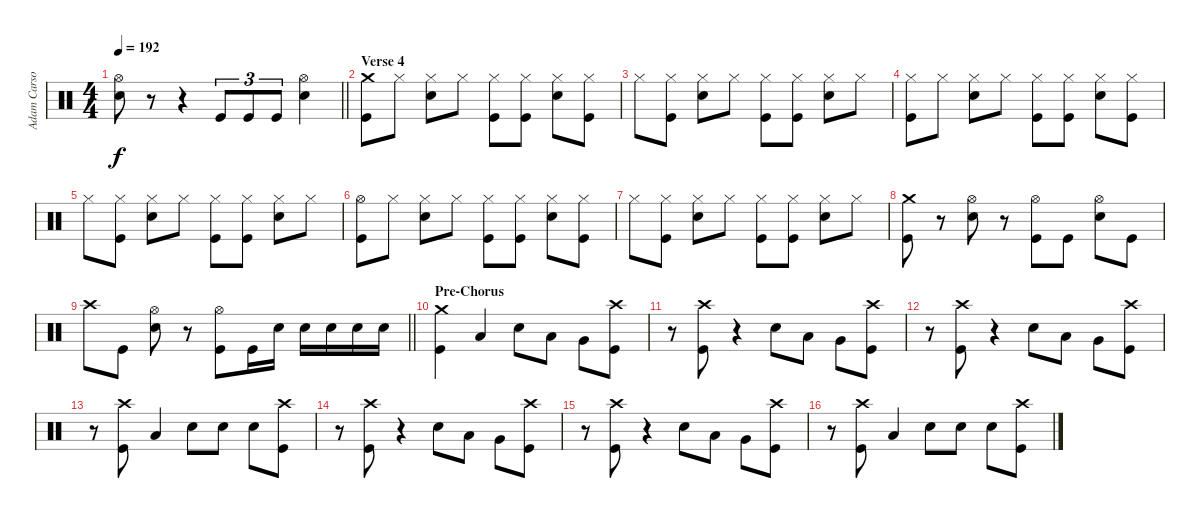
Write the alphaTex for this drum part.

\track ("Adam Carson" "Adam Carso") {instrument percussion}
\staff {score}
\articulation defaults
\ts (4 4)
\tempo 192
\clef neutral
\barLineRight lightlight
\ks c
("Hi-Hat (open)" "Electric Snare (hit)").8{dy f} r.8 r.4 "Kick (hit)".8{tu (3 2)} "Kick (hit)".8{tu (3 2)} "Kick (hit)".8{tu (3 2)} ("Hi-Hat (open)" "Electric Snare (hit)").4 |
\section ("" "Verse 4")
("Crash medium (hit)" "Kick (hit)").8 "Hi-Hat (closed)".8 ("Hi-Hat (closed)" "Electric Snare (hit)").8 "Hi-Hat (closed)".8 ("Hi-Hat (closed)" "Kick (hit)").8 ("Hi-Hat (closed)" "Kick (hit)").8 ("Hi-Hat (closed)" "Electric Snare (hit)").8 ("Hi-Hat (closed)" "Kick (hit)").8 |
"Hi-Hat (closed)".8 ("Hi-Hat (closed)" "Kick (hit)").8 ("Hi-Hat (closed)" "Electric Snare (hit)").8 "Hi-Hat (closed)".8 ("Hi-Hat (closed)" "Kick (hit)").8 ("Hi-Hat (closed)" "Kick (hit)").8 ("Hi-Hat (closed)" "Electric Snare (hit)").8 "Hi-Hat (closed)".8 |
("Hi-Hat (closed)" "Kick (hit)").8 "Hi-Hat (closed)".8 ("Hi-Hat (closed)" "Electric Snare (hit)").8 "Hi-Hat (closed)".8 ("Hi-Hat (closed)" "Kick (hit)").8 ("Hi-Hat (closed)" "Kick (hit)").8 ("Hi-Hat (closed)" "Electric Snare (hit)").8 ("Hi-Hat (closed)" "Kick (hit)").8 |
"Hi-Hat (closed)".8 ("Hi-Hat (closed)" "Kick (hit)").8 ("Hi-Hat (closed)" "Electric Snare (hit)").8 "Hi-Hat (closed)".8 ("Hi-Hat (closed)" "Kick (hit)").8 ("Hi-Hat (closed)" "Kick (hit)").8 ("Hi-Hat (closed)" "Electric Snare (hit)").8 "Hi-Hat (closed)".8 |
("Hi-Hat (open)" "Kick (hit)").8 "Hi-Hat (closed)".8 ("Hi-Hat (closed)" "Electric Snare (hit)").8 "Hi-Hat (closed)".8 ("Hi-Hat (closed)" "Kick (hit)").8 ("Hi-Hat (closed)" "Kick (hit)").8 ("Hi-Hat (closed)" "Electric Snare (hit)").8 ("Hi-Hat (closed)" "Kick (hit)").8 |
"Hi-Hat (closed)".8 ("Hi-Hat (closed)" "Kick (hit)").8 ("Hi-Hat (closed)" "Electric Snare (hit)").8 "Hi-Hat (closed)".8 ("Hi-Hat (closed)" "Kick (hit)").8 ("Hi-Hat (closed)" "Kick (hit)").8 ("Hi-Hat (closed)" "Electric Snare (hit)").8 "Hi-Hat (closed)".8 |
("Crash medium (hit)" "Kick (hit)").8 r.8 ("Hi-Hat (open)" "Electric Snare (hit)").8 r.8 ("Hi-Hat (open)" "Kick (hit)").8 "Kick (hit)".8 ("Hi-Hat (open)" "Electric Snare (hit)").8 "Kick (hit)".8 |
\barLineRight lightlight "Crash high (hit)".8 "Kick (hit)".8
("Hi-Hat (open)" "Electric Snare (hit)").8 r.8 ("Hi-Hat (open)" "Kick (hit)").8 "Kick (hit)".16 "Electric Snare (hit)".16 "Electric Snare (hit)".16 "Electric Snare (hit)".16 "Electric Snare (hit)".16 "Electric Snare (hit)".16 |
\section ("" "Pre-Chorus")
("Crash medium (hit)" "Kick (hit)").4 "Low Tom (hit)".4 "Electric Snare (hit)".8 "Low Tom (hit)".8 "Very Low Tom (hit)".8 ("Crash high (hit)" "Kick (hit)").8 |
r.8 ("Crash high (hit)" "Kick (hit)").8 r.4 "Electric Snare (hit)".8 "Low Tom (hit)".8 "Very Low Tom (hit)".8 ("Crash high (hit)" "Kick (hit)").8 |
r.8 ("Crash high (hit)" "Kick (hit)").8 r.4 "Electric Snare (hit)".8 "Low Tom (hit)".8 "Very Low Tom (hit)".8 ("Crash high (hit)" "Kick (hit)").8 |
r.8 ("Crash high (hit)" "Kick (hit)").8 "Low Tom (hit)".4 "Electric Snare (hit)".8 "Electric Snare (hit)".8 "Electric Snare (hit)".8 ("Crash high (hit)" "Kick (hit)").8 |
r.8 ("Crash high (hit)" "Kick (hit)").8 r.4 "Electric Snare (hit)".8 "Low Tom (hit)".8 "Very Low Tom (hit)".8 ("Crash high (hit)" "Kick (hit)").8 |
r.8 ("Crash high (hit)" "Kick (hit)").8 r.4 "Electric Snare (hit)".8 "Low Tom (hit)".8 "Very Low Tom (hit)".8 ("Crash high (hit)" "Kick (hit)").8 |
r.8 ("Crash high (hit)" "Kick (hit)").8 "Low Tom (hit)".4 "Electric Snare (hit)".8 "Electric Snare (hit)".8 "Electric Snare (hit)".8 ("Crash high (hit)" "Kick (hit)").8
